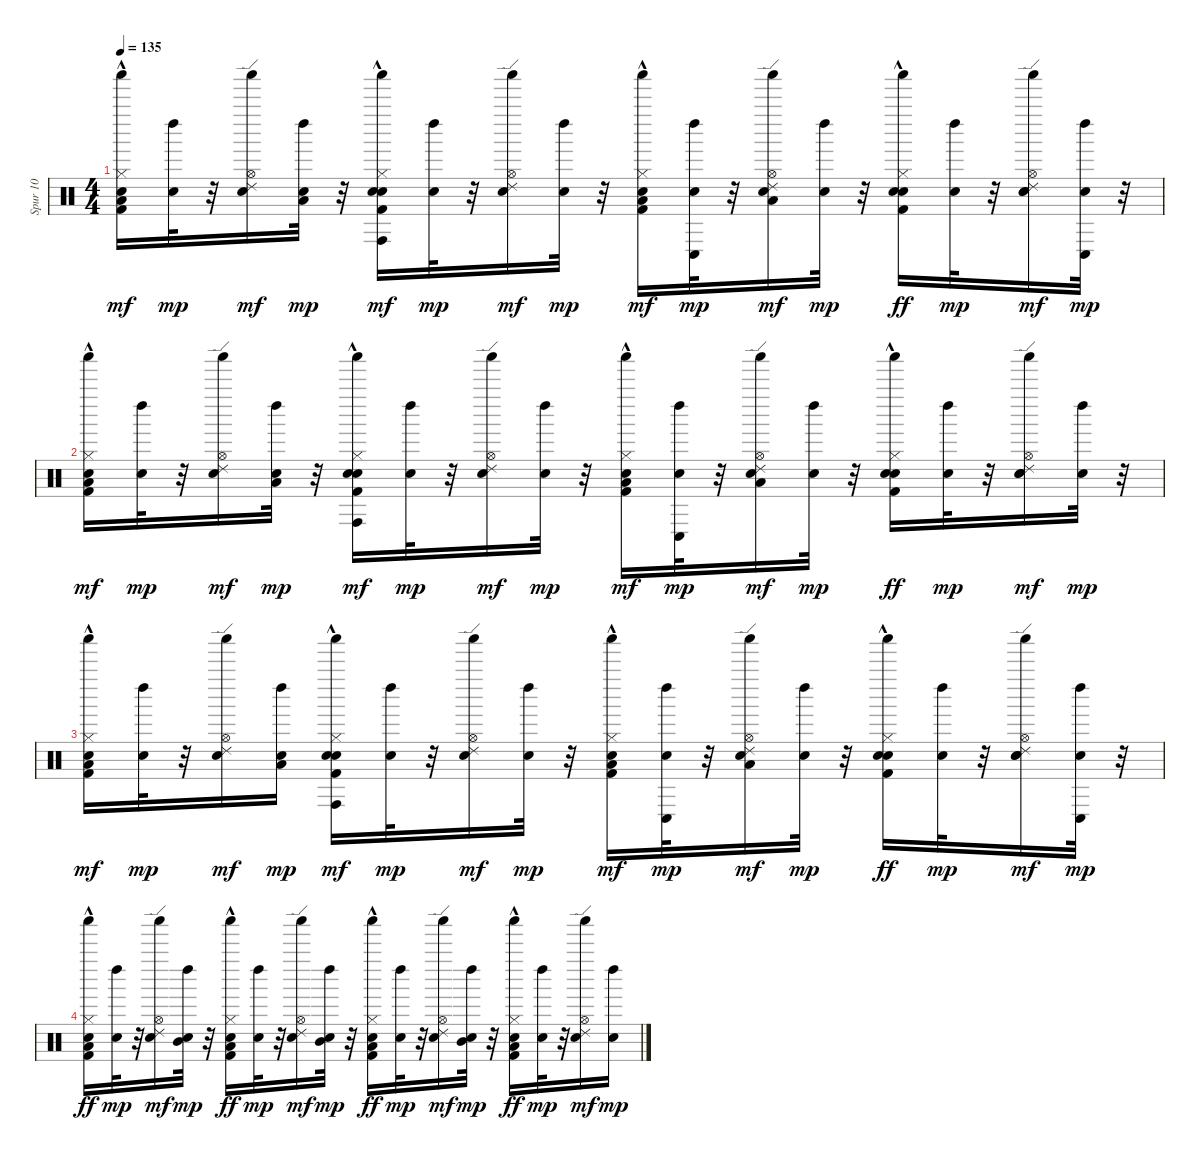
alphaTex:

\track ("Spur 10" "Spur 10") {instrument percussion}
\staff {score}
\articulation defaults
\ts (4 4)
\tempo 135
\clef neutral
\ks c
("Snare (hit) 2" "Kick (hit) 2" "Low Tom (hit)" "Shaker (hit)" "Hi-Hat (closed)"{hac}).16{dy mf} ("Snare (hit) 2" "Left Maraca (hit)").32{dy mp} r.32 ("Snare (hit) 2" "Shaker (hit)" "Hi-Hat (open)" "Ride (edge) 2").16{dy mf} ("Snare (hit) 2" "Low Tom (hit)" "Left Maraca (hit)").32{dy mp} r.32 ("Snare (hit) 2" "Kick (hit) 2" "Conga high (hit)" "Hand Clap (hit)" "Hi-Hat (closed)"{hac} "Shaker (hit)").16{dy mf} ("Snare (hit) 2" "Left Maraca (hit)").32{dy mp} r.32 ("Snare (hit) 2" "Hi-Hat (open)" "Shaker (hit)" "Ride (edge) 2").16{dy mf} ("Snare (hit) 2" "Left Maraca (hit)").32{dy mp} r.32 ("Snare (hit) 2" "Kick (hit) 2" "Low Tom (hit)" "Hi-Hat (closed)"{hac} "Shaker (hit)").16{dy mf} ("Snare (hit) 2" "Conga low (hit)" "Left Maraca (hit)").32{dy mp} r.32 ("Snare (hit) 2" "Low Tom (hit)" "Hi-Hat (open)" "Shaker (hit)" "Ride (edge) 2").16{dy mf} ("Snare (hit) 2" "Left Maraca (hit)").32{dy mp} r.32 ("Snare (hit) 2" "Kick (hit) 2" "Hand Clap (hit)" "Hi-Hat (closed)"{hac} "Shaker (hit)").16{dy ff} ("Snare (hit) 2" "Left Maraca (hit)").32{dy mp} r.32 ("Snare (hit) 2" "Hand Clap (hit)" "Hi-Hat (open)" "Shaker (hit)" "Ride (edge) 2").16{dy mf} ("Snare (hit) 2" "Conga low (hit)" "Left Maraca (hit)").32{dy mp} r.32 |
("Snare (hit) 2" "Kick (hit) 2" "Low Tom (hit)" "Shaker (hit)" "Hi-Hat (closed)"{hac}).16{dy mf} ("Snare (hit) 2" "Left Maraca (hit)").32{dy mp} r.32 ("Snare (hit) 2" "Shaker (hit)" "Hi-Hat (open)" "Ride (edge) 2").16{dy mf} ("Snare (hit) 2" "Low Tom (hit)" "Left Maraca (hit)").32{dy mp} r.32 ("Snare (hit) 2" "Kick (hit) 2" "Conga high (hit)" "Hand Clap (hit)" "Hi-Hat (closed)"{hac} "Shaker (hit)").16{dy mf} ("Snare (hit) 2" "Left Maraca (hit)").32{dy mp} r.32 ("Snare (hit) 2" "Hi-Hat (open)" "Shaker (hit)" "Ride (edge) 2").16{dy mf} ("Snare (hit) 2" "Left Maraca (hit)").32{dy mp} r.32 ("Snare (hit) 2" "Kick (hit) 2" "Low Tom (hit)" "Hi-Hat (closed)"{hac} "Shaker (hit)").16{dy mf} ("Snare (hit) 2" "Conga low (hit)" "Left Maraca (hit)").32{dy mp} r.32 ("Snare (hit) 2" "Low Tom (hit)" "Hi-Hat (open)" "Shaker (hit)" "Ride (edge) 2").16{dy mf} ("Snare (hit) 2" "Left Maraca (hit)").32{dy mp} r.32 ("Snare (hit) 2" "Kick (hit) 2" "Hand Clap (hit)" "Hi-Hat (closed)"{hac} "Shaker (hit)").16{dy ff} ("Snare (hit) 2" "Left Maraca (hit)").32{dy mp} r.32 ("Snare (hit) 2" "Hand Clap (hit)" "Hi-Hat (open)" "Shaker (hit)" "Ride (edge) 2").16{dy mf} ("Snare (hit) 2" "Left Maraca (hit)").32{dy mp} r.32 |
("Snare (hit) 2" "Kick (hit) 2" "Low Tom (hit)" "Shaker (hit)" "Hi-Hat (closed)"{hac}).16{dy mf} ("Snare (hit) 2" "Left Maraca (hit)").32{dy mp} r.32 ("Snare (hit) 2" "Shaker (hit)" "Hi-Hat (open)" "Ride (edge) 2").16{dy mf} ("Snare (hit) 2" "Low Tom (hit)" "Left Maraca (hit)").16{dy mp} ("Snare (hit) 2" "Kick (hit) 2" "Conga high (hit)" "Hand Clap (hit)" "Hi-Hat (closed)"{hac} "Shaker (hit)").16{dy mf} ("Snare (hit) 2" "Left Maraca (hit)").32{dy mp} r.32 ("Snare (hit) 2" "Hi-Hat (open)" "Shaker (hit)" "Ride (edge) 2").16{dy mf} ("Snare (hit) 2" "Left Maraca (hit)").32{dy mp} r.32 ("Snare (hit) 2" "Kick (hit) 2" "Low Tom (hit)" "Hi-Hat (closed)"{hac} "Shaker (hit)").16{dy mf} ("Snare (hit) 2" "Conga low (hit)" "Left Maraca (hit)").32{dy mp} r.32 ("Snare (hit) 2" "Low Tom (hit)" "Hi-Hat (open)" "Shaker (hit)" "Ride (edge) 2").16{dy mf} ("Snare (hit) 2" "Left Maraca (hit)").32{dy mp} r.32 ("Snare (hit) 2" "Kick (hit) 2" "Hand Clap (hit)" "Hi-Hat (closed)"{hac} "Shaker (hit)").16{dy ff} ("Snare (hit) 2" "Left Maraca (hit)").32{dy mp} r.32 ("Snare (hit) 2" "Hand Clap (hit)" "Hi-Hat (open)" "Shaker (hit)" "Ride (edge) 2").16{dy mf} ("Snare (hit) 2" "Conga low (hit)" "Left Maraca (hit)").32{dy mp} r.32 |
("Snare (hit) 2" "Kick (hit) 2" "Low Tom (hit)" "Shaker (hit)" "Hi-Hat (closed)"{hac}).16{dy ff} ("Snare (hit) 2" "Left Maraca (hit)").32{dy mp} r.32 ("Snare (hit) 2" "Shaker (hit)" "Hi-Hat (open)" "Ride (edge) 2").16{dy mf} ("Snare (hit) 2" "Mid Tom (hit)" "Left Maraca (hit)").32{dy mp} r.32 ("Snare (hit) 2" "Kick (hit) 2" "Low Tom (hit)" "Hi-Hat (closed)"{hac} "Shaker (hit)").16{dy ff} ("Snare (hit) 2" "Left Maraca (hit)").32{dy mp} r.32 ("Snare (hit) 2" "Hi-Hat (open)" "Shaker (hit)" "Ride (edge) 2").16{dy mf} ("Snare (hit) 2" "Mid Tom (hit)" "Left Maraca (hit)").32{dy mp} r.32 ("Snare (hit) 2" "Kick (hit) 2" "Low Tom (hit)" "Hi-Hat (closed)"{hac} "Shaker (hit)").16{dy ff} ("Snare (hit) 2" "Left Maraca (hit)").32{dy mp} r.32 ("Snare (hit) 2" "Hi-Hat (open)" "Shaker (hit)" "Ride (edge) 2").16{dy mf} ("Snare (hit) 2" "Mid Tom (hit)" "Left Maraca (hit)").32{dy mp} r.32 ("Snare (hit) 2" "Kick (hit) 2" "Low Tom (hit)" "Hi-Hat (closed)"{hac} "Shaker (hit)").16{dy ff} ("Snare (hit) 2" "Left Maraca (hit)").32{dy mp} r.32 ("Snare (hit) 2" "Hi-Hat (open)" "Shaker (hit)" "Ride (edge) 2").16{dy mf} ("Snare (hit) 2" "Left Maraca (hit)").16{dy mp}
